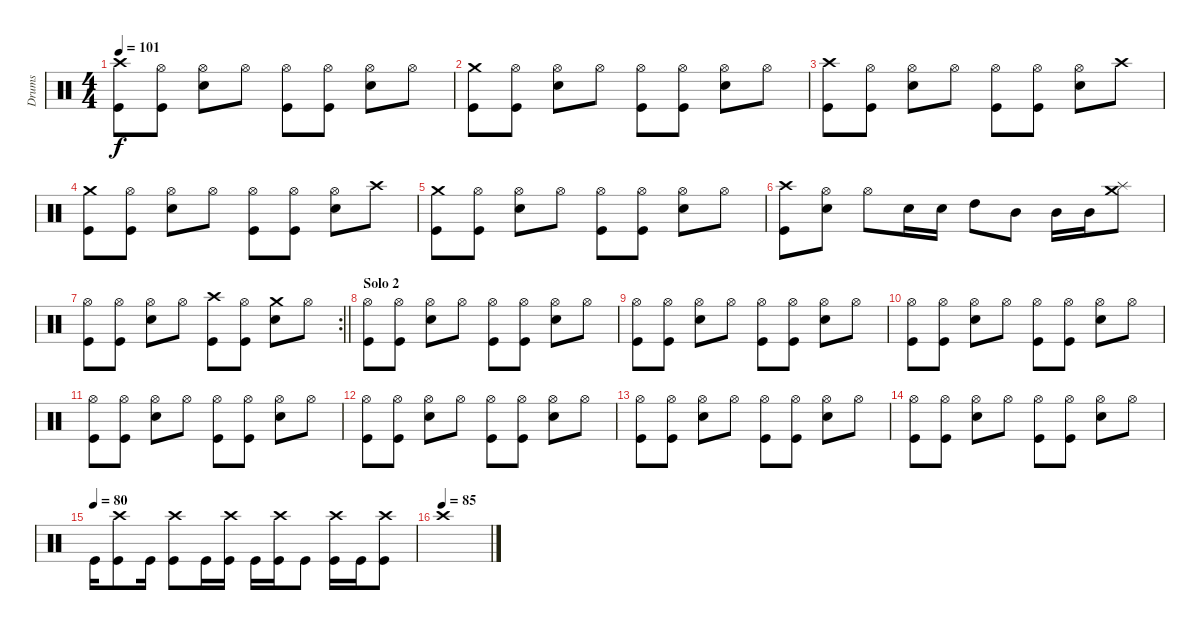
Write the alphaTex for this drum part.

\track ("Drums" "Drums") {instrument percussion}
\staff {score}
\articulation defaults
\ts (4 4)
\tempo 101
\clef neutral
\ks c
("Crash high (hit)" "Kick (hit)").8{dy f} ("Hi-Hat (open)" "Kick (hit)").8 ("Hi-Hat (open)" "Snare (hit) 2").8 "Hi-Hat (open)".8 ("Hi-Hat (open)" "Kick (hit)").8 ("Hi-Hat (open)" "Kick (hit)").8 ("Hi-Hat (open)" "Snare (hit) 2").8 "Hi-Hat (open)".8 |
("Crash medium (hit)" "Kick (hit)").8 ("Hi-Hat (open)" "Kick (hit)").8 ("Hi-Hat (open)" "Snare (hit) 2").8 "Hi-Hat (open)".8 ("Hi-Hat (open)" "Kick (hit)").8 ("Hi-Hat (open)" "Kick (hit)").8 ("Hi-Hat (open)" "Snare (hit) 2").8 "Hi-Hat (open)".8 |
("Crash high (hit)" "Kick (hit)").8 ("Hi-Hat (open)" "Kick (hit)").8 ("Hi-Hat (open)" "Snare (hit) 2").8 "Hi-Hat (open)".8 ("Hi-Hat (open)" "Kick (hit)").8 ("Hi-Hat (open)" "Kick (hit)").8 ("Hi-Hat (open)" "Snare (hit) 2").8 "Crash high (hit)".8 |
("Crash medium (hit)" "Kick (hit)").8 ("Hi-Hat (open)" "Kick (hit)").8 ("Hi-Hat (open)" "Snare (hit) 2").8 "Hi-Hat (open)".8 ("Hi-Hat (open)" "Kick (hit)").8 ("Hi-Hat (open)" "Kick (hit)").8 ("Hi-Hat (open)" "Snare (hit) 2").8 "Crash high (hit)".8 |
("Crash medium (hit)" "Kick (hit)").8 ("Hi-Hat (open)" "Kick (hit)").8 ("Hi-Hat (open)" "Snare (hit) 2").8 "Hi-Hat (open)".8 ("Hi-Hat (open)" "Kick (hit)").8 ("Hi-Hat (open)" "Kick (hit)").8 ("Hi-Hat (open)" "Snare (hit) 2").8 "Hi-Hat (open)".8 |
("Crash high (hit)" "Kick (hit)").8 ("Hi-Hat (open)" "Snare (hit) 2").8 "Hi-Hat (open)".8 "Snare (hit) 2".16 "Snare (hit) 2".16 "High Tom (hit)".8 "Mid Tom (hit)".8 "Mid Tom (hit)".16 "Mid Tom (hit)".16 ("Splash (hit)" "Crash medium (hit)").8 |
\rc 2
\barLineRight lightlight
("Hi-Hat (open)" "Kick (hit)").8 ("Hi-Hat (open)" "Kick (hit)").8 ("Hi-Hat (open)" "Snare (hit) 2").8 "Hi-Hat (open)".8 ("Crash high (hit)" "Kick (hit)").8 ("Hi-Hat (open)" "Kick (hit)").8 ("Crash medium (hit)" "Snare (hit) 2").8 "Hi-Hat (open)".8 |
\section ("" "Solo 2")
("Hi-Hat (open)" "Kick (hit)").8 ("Hi-Hat (open)" "Kick (hit)").8 ("Hi-Hat (open)" "Snare (hit) 2").8 "Hi-Hat (open)".8 ("Hi-Hat (open)" "Kick (hit)").8 ("Hi-Hat (open)" "Kick (hit)").8 ("Hi-Hat (open)" "Snare (hit) 2").8 "Hi-Hat (open)".8 |
("Hi-Hat (open)" "Kick (hit)").8 ("Hi-Hat (open)" "Kick (hit)").8 ("Hi-Hat (open)" "Snare (hit) 2").8 "Hi-Hat (open)".8 ("Hi-Hat (open)" "Kick (hit)").8 ("Hi-Hat (open)" "Kick (hit)").8 ("Hi-Hat (open)" "Snare (hit) 2").8 "Hi-Hat (open)".8 |
("Hi-Hat (open)" "Kick (hit)").8 ("Hi-Hat (open)" "Kick (hit)").8 ("Hi-Hat (open)" "Snare (hit) 2").8 "Hi-Hat (open)".8 ("Hi-Hat (open)" "Kick (hit)").8 ("Hi-Hat (open)" "Kick (hit)").8 ("Hi-Hat (open)" "Snare (hit) 2").8 "Hi-Hat (open)".8 |
("Hi-Hat (open)" "Kick (hit)").8 ("Hi-Hat (open)" "Kick (hit)").8 ("Hi-Hat (open)" "Snare (hit) 2").8 "Hi-Hat (open)".8 ("Hi-Hat (open)" "Kick (hit)").8 ("Hi-Hat (open)" "Kick (hit)").8 ("Hi-Hat (open)" "Snare (hit) 2").8 "Hi-Hat (open)".8 |
("Hi-Hat (open)" "Kick (hit)").8 ("Hi-Hat (open)" "Kick (hit)").8 ("Hi-Hat (open)" "Snare (hit) 2").8 "Hi-Hat (open)".8 ("Hi-Hat (open)" "Kick (hit)").8 ("Hi-Hat (open)" "Kick (hit)").8 ("Hi-Hat (open)" "Snare (hit) 2").8 "Hi-Hat (open)".8 |
("Hi-Hat (open)" "Kick (hit)").8 ("Hi-Hat (open)" "Kick (hit)").8 ("Hi-Hat (open)" "Snare (hit) 2").8 "Hi-Hat (open)".8 ("Hi-Hat (open)" "Kick (hit)").8 ("Hi-Hat (open)" "Kick (hit)").8 ("Hi-Hat (open)" "Snare (hit) 2").8 "Hi-Hat (open)".8 |
("Hi-Hat (open)" "Kick (hit)").8 ("Hi-Hat (open)" "Kick (hit)").8 ("Hi-Hat (open)" "Snare (hit) 2").8 "Hi-Hat (open)".8 ("Hi-Hat (open)" "Kick (hit)").8 ("Hi-Hat (open)" "Kick (hit)").8 ("Hi-Hat (open)" "Snare (hit) 2").8 "Hi-Hat (open)".8 |
\tempo (80)
"Kick (hit)".16 ("Crash high (hit)" "Kick (hit)").8 "Kick (hit)".16 ("Crash high (hit)" "Kick (hit)").8 "Kick (hit)".16 ("Crash high (hit)" "Kick (hit)").16 "Kick (hit)".16 ("Crash high (hit)" "Kick (hit)").16 "Kick (hit)".8 ("Crash high (hit)" "Kick (hit)").16 "Kick (hit)".16 ("Crash high (hit)" "Kick (hit)").8 |
\tempo (85)
"Crash high (hit)".1
